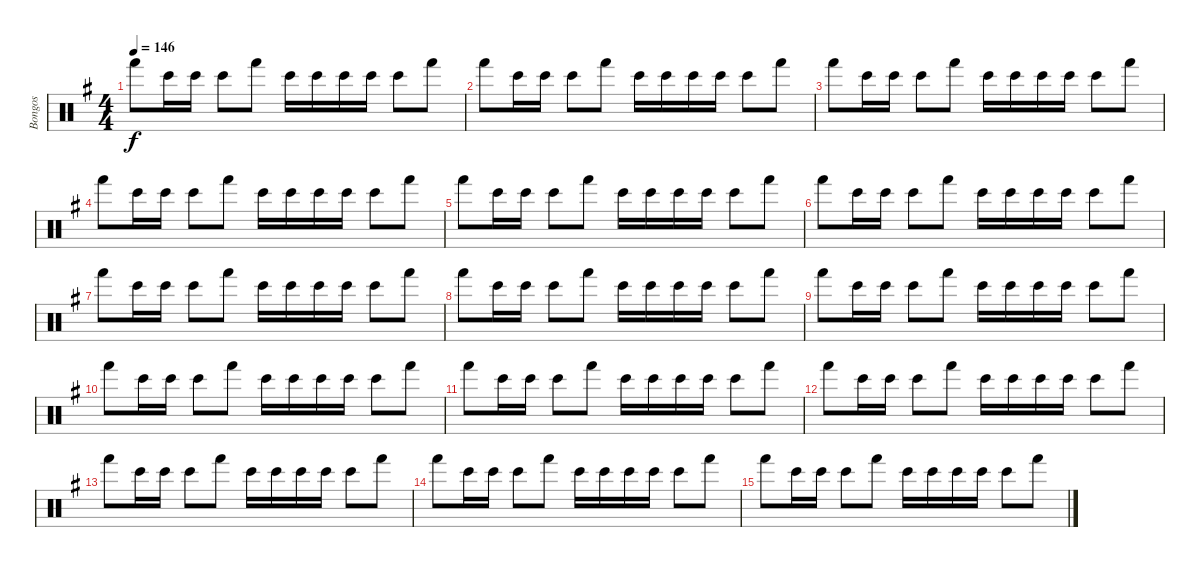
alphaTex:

\track ("Bongos" "Bongos") {instrument percussion}
\staff {score}
\articulation defaults
\ts (4 4)
\tempo 146
\clef neutral
\ks g "Hand (hit)".8{dy f} "Bongo High (hit)".16 "Bongo High (hit)".16 "Bongo High (hit)".8 "Hand (hit)".8 "Bongo High (hit)".16 "Bongo High (hit)".16 "Bongo High (hit)".16 "Bongo High (hit)".16 "Bongo High (hit)".8 "Hand (hit)".8
|
"Hand (hit)".8 "Bongo High (hit)".16 "Bongo High (hit)".16 "Bongo High (hit)".8 "Hand (hit)".8 "Bongo High (hit)".16 "Bongo High (hit)".16 "Bongo High (hit)".16 "Bongo High (hit)".16 "Bongo High (hit)".8 "Hand (hit)".8 |
"Hand (hit)".8 "Bongo High (hit)".16 "Bongo High (hit)".16 "Bongo High (hit)".8 "Hand (hit)".8 "Bongo High (hit)".16 "Bongo High (hit)".16 "Bongo High (hit)".16 "Bongo High (hit)".16 "Bongo High (hit)".8 "Hand (hit)".8 |
"Hand (hit)".8 "Bongo High (hit)".16 "Bongo High (hit)".16 "Bongo High (hit)".8 "Hand (hit)".8 "Bongo High (hit)".16 "Bongo High (hit)".16 "Bongo High (hit)".16 "Bongo High (hit)".16 "Bongo High (hit)".8 "Hand (hit)".8 |
"Hand (hit)".8 "Bongo High (hit)".16 "Bongo High (hit)".16 "Bongo High (hit)".8 "Hand (hit)".8 "Bongo High (hit)".16 "Bongo High (hit)".16 "Bongo High (hit)".16 "Bongo High (hit)".16 "Bongo High (hit)".8 "Hand (hit)".8 |
"Hand (hit)".8 "Bongo High (hit)".16 "Bongo High (hit)".16 "Bongo High (hit)".8 "Hand (hit)".8 "Bongo High (hit)".16 "Bongo High (hit)".16 "Bongo High (hit)".16 "Bongo High (hit)".16 "Bongo High (hit)".8 "Hand (hit)".8 |
"Hand (hit)".8 "Bongo High (hit)".16 "Bongo High (hit)".16 "Bongo High (hit)".8 "Hand (hit)".8 "Bongo High (hit)".16 "Bongo High (hit)".16 "Bongo High (hit)".16 "Bongo High (hit)".16 "Bongo High (hit)".8 "Hand (hit)".8 |
"Hand (hit)".8 "Bongo High (hit)".16 "Bongo High (hit)".16 "Bongo High (hit)".8 "Hand (hit)".8 "Bongo High (hit)".16 "Bongo High (hit)".16 "Bongo High (hit)".16 "Bongo High (hit)".16 "Bongo High (hit)".8 "Hand (hit)".8 |
"Hand (hit)".8 "Bongo High (hit)".16 "Bongo High (hit)".16 "Bongo High (hit)".8 "Hand (hit)".8 "Bongo High (hit)".16 "Bongo High (hit)".16 "Bongo High (hit)".16 "Bongo High (hit)".16 "Bongo High (hit)".8 "Hand (hit)".8 |
"Hand (hit)".8 "Bongo High (hit)".16 "Bongo High (hit)".16 "Bongo High (hit)".8 "Hand (hit)".8 "Bongo High (hit)".16 "Bongo High (hit)".16 "Bongo High (hit)".16 "Bongo High (hit)".16 "Bongo High (hit)".8 "Hand (hit)".8 |
"Hand (hit)".8 "Bongo High (hit)".16 "Bongo High (hit)".16 "Bongo High (hit)".8 "Hand (hit)".8 "Bongo High (hit)".16 "Bongo High (hit)".16 "Bongo High (hit)".16 "Bongo High (hit)".16 "Bongo High (hit)".8 "Hand (hit)".8 |
"Hand (hit)".8 "Bongo High (hit)".16 "Bongo High (hit)".16 "Bongo High (hit)".8 "Hand (hit)".8 "Bongo High (hit)".16 "Bongo High (hit)".16 "Bongo High (hit)".16 "Bongo High (hit)".16 "Bongo High (hit)".8 "Hand (hit)".8 |
"Hand (hit)".8 "Bongo High (hit)".16 "Bongo High (hit)".16 "Bongo High (hit)".8 "Hand (hit)".8 "Bongo High (hit)".16 "Bongo High (hit)".16 "Bongo High (hit)".16 "Bongo High (hit)".16 "Bongo High (hit)".8 "Hand (hit)".8 |
"Hand (hit)".8 "Bongo High (hit)".16 "Bongo High (hit)".16 "Bongo High (hit)".8 "Hand (hit)".8 "Bongo High (hit)".16 "Bongo High (hit)".16 "Bongo High (hit)".16 "Bongo High (hit)".16 "Bongo High (hit)".8 "Hand (hit)".8 |
"Hand (hit)".8 "Bongo High (hit)".16 "Bongo High (hit)".16 "Bongo High (hit)".8 "Hand (hit)".8 "Bongo High (hit)".16 "Bongo High (hit)".16 "Bongo High (hit)".16 "Bongo High (hit)".16 "Bongo High (hit)".8 "Hand (hit)".8
